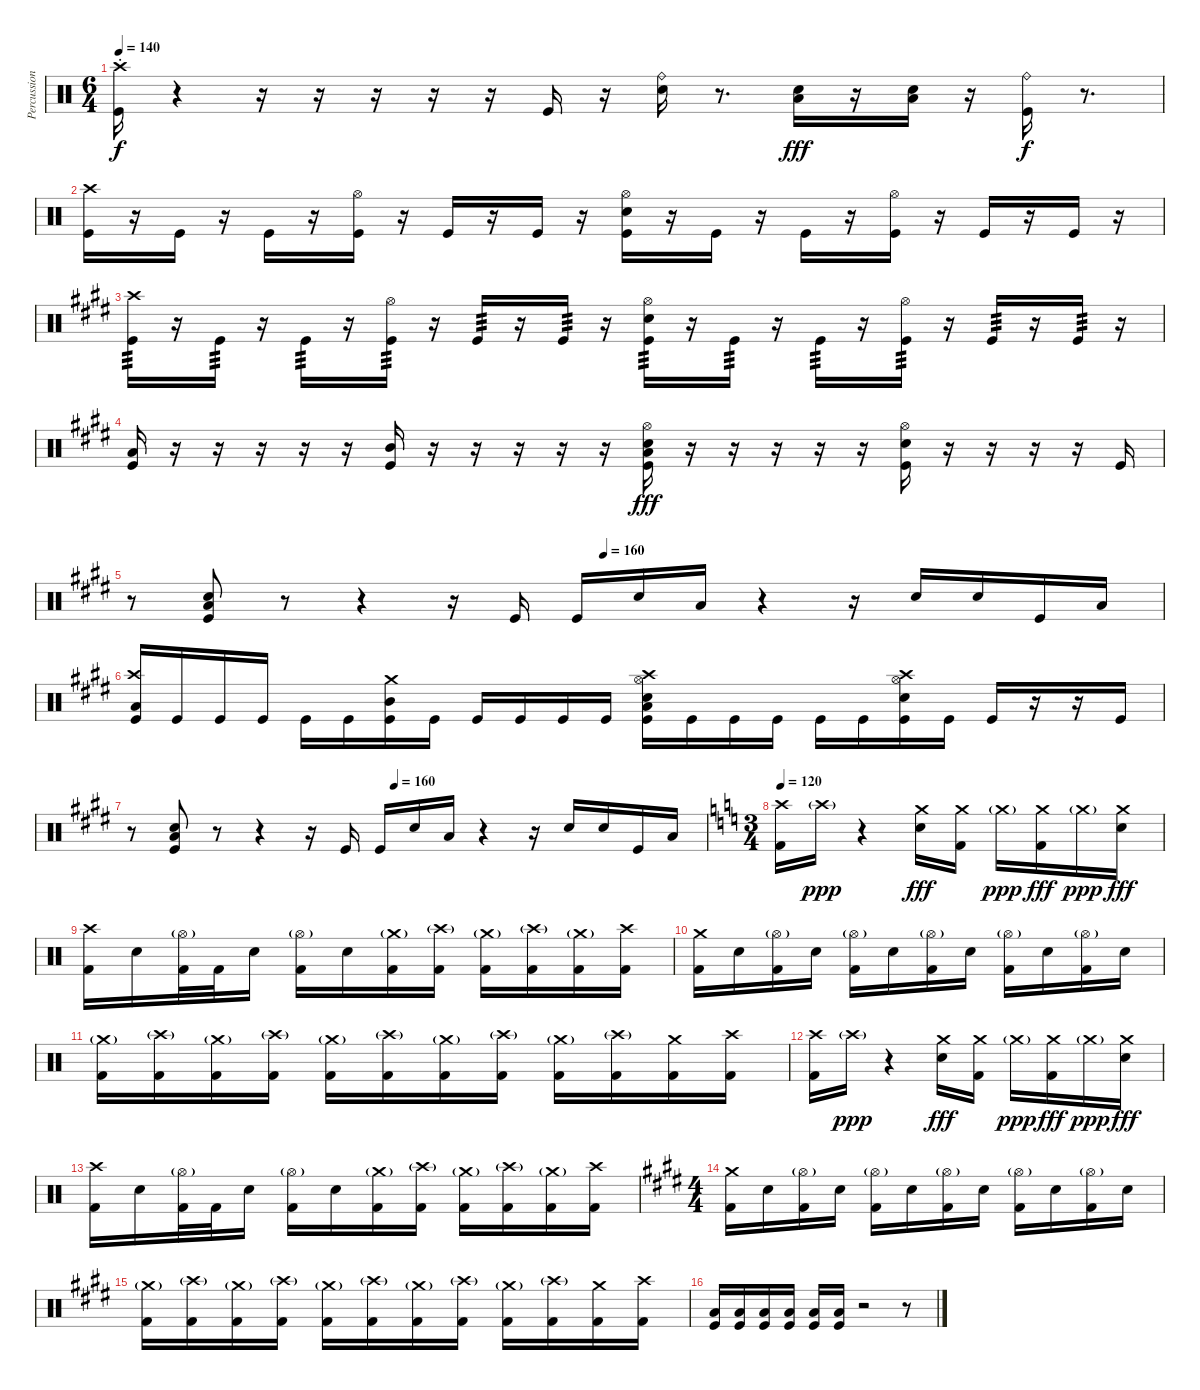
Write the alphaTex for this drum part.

\track ("Percussion" "Percussion") {instrument percussion}
\staff {score}
\articulation defaults
\ts (6 4)
\tempo 140
\clef neutral
\ks c
("Kick (hit)"{st} "Crash high (hit)"{st}).16{dy f} r.4 r.16 r.16 r.16 r.16 r.16 "Kick (hit)".16 r.16 ("Snare (hit) 2" "Ride (bell)").16 r.8{d} ("Electric Snare (hit)" "Low Floor Tom (hit)").16{dy fff} r.16 ("Electric Snare (hit)" "Low Tom (hit)").16 r.16 ("Kick (hit)" "Ride (bell)").16{dy f} r.8{d} |
("Kick (hit)" "Crash high (hit)").16 r.16 "Kick (hit)".16 r.16 "Kick (hit)".16 r.16 ("Kick (hit)" "Hi-Hat (open)").16 r.16 "Kick (hit)".16 r.16 "Kick (hit)".16 r.16 ("Kick (hit)" "Snare (hit) 2" "Hi-Hat (open)").16 r.16 "Kick (hit)".16 r.16 "Kick (hit)".16 r.16 ("Kick (hit)" "Hi-Hat (open)").16 r.16 "Kick (hit)".16 r.16 "Kick (hit)".16 r.16 |
\ks e
("Kick (hit)" "Crash high (hit)").16{tp 3} r.16 "Kick (hit)".16{tp 3} r.16 "Kick (hit)".16{tp 3} r.16 ("Kick (hit)" "Hi-Hat (open)").16{tp 3} r.16 "Kick (hit)".16{tp 3} r.16 "Kick (hit)".16{tp 3} r.16 ("Kick (hit)" "Snare (hit) 2" "Hi-Hat (open)").16{tp 3} r.16 "Kick (hit)".16{tp 3} r.16 "Kick (hit)".16{tp 3} r.16 ("Kick (hit)" "Hi-Hat (open)").16{tp 3} r.16 "Kick (hit)".16{tp 3} r.16 "Kick (hit)".16{tp 3} r.16 |
("Kick (hit)" "Low Floor Tom (hit)").16 r.16 r.16 r.16 r.16 r.16 ("Kick (hit)" "Mid Tom (hit)").16 r.16 r.16 r.16 r.16 r.16 ("Kick (hit)" "Snare (hit) 2" "Hi-Hat (open)" "Low Floor Tom (hit)").16{dy fff} r.16 r.16 r.16 r.16 r.16 ("Kick (hit)" "Hi-Hat (open)" "Electric Snare (hit)").16 r.16 r.16 r.16 r.16 "Kick (hit)".16 |
\tempo (160 0.4583333333333333)
r.8 ("Kick (hit)" "Low Floor Tom (hit)" "Electric Snare (hit)").8 r.8 r.4 r.16 "Kick (hit)".16 "Kick (hit)".16 "Electric Snare (hit)".16 "Low Floor Tom (hit)".16 r.4 r.16 "Electric Snare (hit)".16 "Electric Snare (hit)".16 "Kick (hit)".16 "Low Floor Tom (hit)".16 |
("Kick (hit)" "Low Floor Tom (hit)" "Crash high (hit)").16 "Kick (hit)".16 "Kick (hit)".16 "Kick (hit)".16 "Kick (hit)".16 "Kick (hit)".16 ("Kick (hit)" "Mid Tom (hit)" "Crash medium (hit)").16 "Kick (hit)".16 "Kick (hit)".16 "Kick (hit)".16 "Kick (hit)".16 "Kick (hit)".16 ("Kick (hit)" "Snare (hit) 2" "Hi-Hat (open)" "Low Floor Tom (hit)" "Crash high (hit)").16 "Kick (hit)".16 "Kick (hit)".16 "Kick (hit)".16 "Kick (hit)".16 "Kick (hit)".16 ("Kick (hit)" "Hi-Hat (open)" "Electric Snare (hit)" "Crash high (hit)").16 "Kick (hit)".16 "Kick (hit)".16 r.16 r.16 "Kick (hit)".16 |
\tempo (160 0.4583333333333333)
r.8 ("Kick (hit)" "Low Floor Tom (hit)" "Electric Snare (hit)").8 r.8 r.4 r.16 "Kick (hit)".16 "Kick (hit)".16 "Electric Snare (hit)".16 "Low Floor Tom (hit)".16 r.4 r.16 "Electric Snare (hit)".16 "Electric Snare (hit)".16 "Kick (hit)".16 "Low Floor Tom (hit)".16 |
\ts (3 4)
\tempo 120
\ks c
("Crash high (hit)" "Kick (hit) 2").16 "Crash high (hit)"{g}.16{dy ppp} r.4 ("Crash medium (hit)" "Electric Snare (hit)").16{dy fff} ("Crash medium (hit)" "Kick (hit) 2").16 "Crash medium (hit)"{g}.16{dy ppp} ("Crash medium (hit)" "Kick (hit) 2").16{dy fff} "Crash medium (hit)"{g}.16{dy ppp} ("Crash medium (hit)" "Electric Snare (hit)").16{dy fff} |
("Crash high (hit)" "Kick (hit) 2").16 "Electric Snare (hit)".16 ("Hi-Hat (open)"{g} "Kick (hit) 2").32 "Kick (hit) 2".32 "Electric Snare (hit)".16 ("Hi-Hat (open)"{g} "Kick (hit) 2").16 "Electric Snare (hit)".16 ("Crash medium (hit)"{g} "Kick (hit) 2").16 ("Crash high (hit)"{g} "Kick (hit) 2").16 ("Crash medium (hit)"{g} "Kick (hit) 2").16 ("Crash high (hit)"{g} "Kick (hit) 2").16 ("Crash medium (hit)"{g} "Kick (hit) 2").16 ("Crash high (hit)" "Kick (hit) 2").16 |
("Crash medium (hit)" "Kick (hit) 2").16 "Electric Snare (hit)".16 ("Hi-Hat (open)"{g} "Kick (hit) 2").16 "Electric Snare (hit)".16 ("Hi-Hat (open)"{g} "Kick (hit) 2").16 "Electric Snare (hit)".16 ("Hi-Hat (open)"{g} "Kick (hit) 2").16 "Electric Snare (hit)".16 ("Hi-Hat (open)"{g} "Kick (hit) 2").16 "Electric Snare (hit)".16 ("Hi-Hat (open)"{g} "Kick (hit) 2").16 "Electric Snare (hit)".16 |
("Crash medium (hit)"{g} "Kick (hit) 2").16 ("Crash high (hit)"{g} "Kick (hit) 2").16 ("Crash medium (hit)"{g} "Kick (hit) 2").16 ("Crash high (hit)"{g} "Kick (hit) 2").16 ("Crash medium (hit)"{g} "Kick (hit) 2").16 ("Crash high (hit)"{g} "Kick (hit) 2").16 ("Crash medium (hit)"{g} "Kick (hit) 2").16 ("Crash high (hit)"{g} "Kick (hit) 2").16 ("Crash medium (hit)"{g} "Kick (hit) 2").16 ("Crash high (hit)"{g} "Kick (hit) 2").16 ("Crash medium (hit)" "Kick (hit) 2").16 ("Crash high (hit)" "Kick (hit) 2").16 |
("Crash high (hit)" "Kick (hit) 2").16 "Crash high (hit)"{g}.16{dy ppp} r.4 ("Crash medium (hit)" "Electric Snare (hit)").16{dy fff} ("Crash medium (hit)" "Kick (hit) 2").16 "Crash medium (hit)"{g}.16{dy ppp} ("Crash medium (hit)" "Kick (hit) 2").16{dy fff} "Crash medium (hit)"{g}.16{dy ppp} ("Crash medium (hit)" "Electric Snare (hit)").16{dy fff} |
("Crash high (hit)" "Kick (hit) 2").16 "Electric Snare (hit)".16 ("Hi-Hat (open)"{g} "Kick (hit) 2").32 "Kick (hit) 2".32 "Electric Snare (hit)".16 ("Hi-Hat (open)"{g} "Kick (hit) 2").16 "Electric Snare (hit)".16 ("Crash medium (hit)"{g} "Kick (hit) 2").16 ("Crash high (hit)"{g} "Kick (hit) 2").16 ("Crash medium (hit)"{g} "Kick (hit) 2").16 ("Crash high (hit)"{g} "Kick (hit) 2").16 ("Crash medium (hit)"{g} "Kick (hit) 2").16 ("Crash high (hit)" "Kick (hit) 2").16 |
\ts (4 4)
\ks e
("Crash medium (hit)" "Kick (hit) 2").16 "Electric Snare (hit)".16 ("Hi-Hat (open)"{g} "Kick (hit) 2").16 "Electric Snare (hit)".16 ("Hi-Hat (open)"{g} "Kick (hit) 2").16 "Electric Snare (hit)".16 ("Hi-Hat (open)"{g} "Kick (hit) 2").16 "Electric Snare (hit)".16 ("Hi-Hat (open)"{g} "Kick (hit) 2").16 "Electric Snare (hit)".16 ("Hi-Hat (open)"{g} "Kick (hit) 2").16 "Electric Snare (hit)".16 |
("Crash medium (hit)"{g} "Kick (hit) 2").16 ("Crash high (hit)"{g} "Kick (hit) 2").16 ("Crash medium (hit)"{g} "Kick (hit) 2").16 ("Crash high (hit)"{g} "Kick (hit) 2").16 ("Crash medium (hit)"{g} "Kick (hit) 2").16 ("Crash high (hit)"{g} "Kick (hit) 2").16 ("Crash medium (hit)"{g} "Kick (hit) 2").16 ("Crash high (hit)"{g} "Kick (hit) 2").16 ("Crash medium (hit)"{g} "Kick (hit) 2").16 ("Crash high (hit)"{g} "Kick (hit) 2").16 ("Crash medium (hit)" "Kick (hit) 2").16 ("Crash high (hit)" "Kick (hit) 2").16 |
("Kick (hit)" "Low Floor Tom (hit)").16 ("Kick (hit)" "Low Floor Tom (hit)").16 ("Kick (hit)" "Low Floor Tom (hit)").16 ("Kick (hit)" "Low Floor Tom (hit)").16 ("Kick (hit)" "Low Floor Tom (hit)").16 ("Kick (hit)" "Low Floor Tom (hit)").16 r.2 r.8
